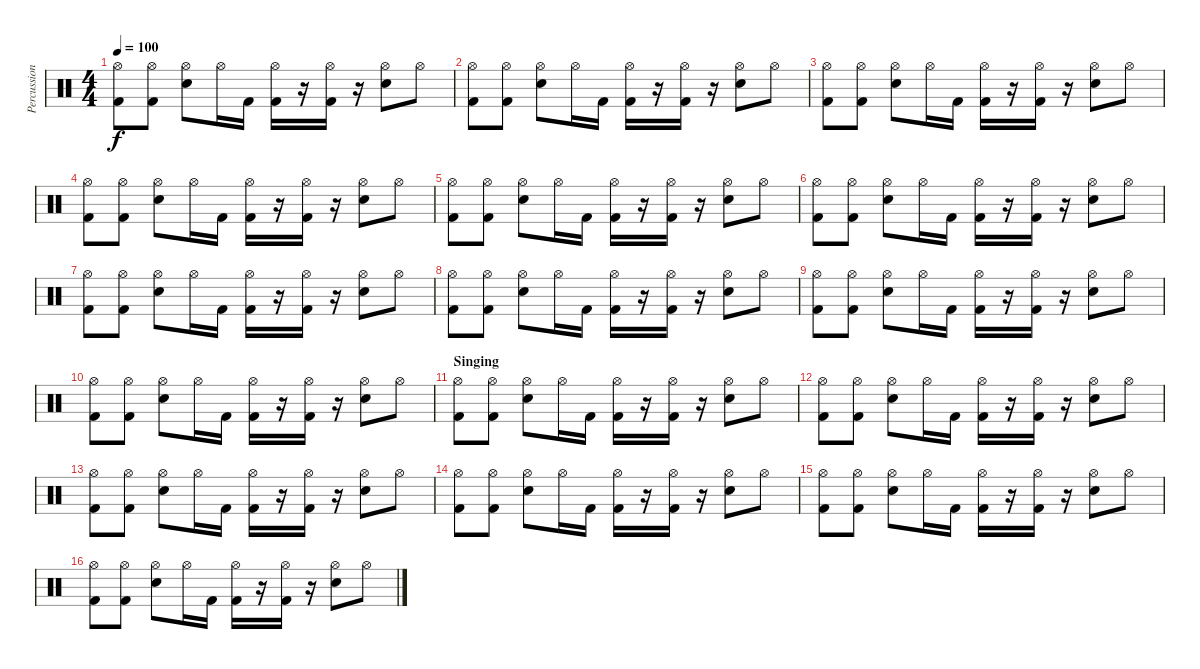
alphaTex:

\track ("Percussion" "Percussion") {instrument percussion}
\staff {score}
\articulation defaults
\ts (4 4)
\tempo 100
\clef neutral
\ks c
("Hi-Hat (open)" "Kick (hit) 2").8{dy f} ("Hi-Hat (open)" "Kick (hit) 2").8 ("Hi-Hat (open)" "Snare (hit) 2").8 "Hi-Hat (open)".16 "Kick (hit) 2".16 ("Hi-Hat (open)" "Kick (hit) 2").16 r.16 ("Hi-Hat (open)" "Kick (hit) 2").16 r.16 ("Hi-Hat (open)" "Snare (hit) 2").8 "Hi-Hat (open)".8 |
("Hi-Hat (open)" "Kick (hit) 2").8 ("Hi-Hat (open)" "Kick (hit) 2").8 ("Hi-Hat (open)" "Snare (hit) 2").8 "Hi-Hat (open)".16 "Kick (hit) 2".16 ("Hi-Hat (open)" "Kick (hit) 2").16 r.16 ("Hi-Hat (open)" "Kick (hit) 2").16 r.16 ("Hi-Hat (open)" "Snare (hit) 2").8 "Hi-Hat (open)".8 |
("Hi-Hat (open)" "Kick (hit) 2").8 ("Hi-Hat (open)" "Kick (hit) 2").8 ("Hi-Hat (open)" "Snare (hit) 2").8 "Hi-Hat (open)".16 "Kick (hit) 2".16 ("Hi-Hat (open)" "Kick (hit) 2").16 r.16 ("Hi-Hat (open)" "Kick (hit) 2").16 r.16 ("Hi-Hat (open)" "Snare (hit) 2").8 "Hi-Hat (open)".8 |
("Hi-Hat (open)" "Kick (hit) 2").8 ("Hi-Hat (open)" "Kick (hit) 2").8 ("Hi-Hat (open)" "Snare (hit) 2").8 "Hi-Hat (open)".16 "Kick (hit) 2".16 ("Hi-Hat (open)" "Kick (hit) 2").16 r.16 ("Hi-Hat (open)" "Kick (hit) 2").16 r.16 ("Hi-Hat (open)" "Snare (hit) 2").8 "Hi-Hat (open)".8 |
("Hi-Hat (open)" "Kick (hit) 2").8 ("Hi-Hat (open)" "Kick (hit) 2").8 ("Hi-Hat (open)" "Snare (hit) 2").8 "Hi-Hat (open)".16 "Kick (hit) 2".16 ("Hi-Hat (open)" "Kick (hit) 2").16 r.16 ("Hi-Hat (open)" "Kick (hit) 2").16 r.16 ("Hi-Hat (open)" "Snare (hit) 2").8 "Hi-Hat (open)".8 |
("Hi-Hat (open)" "Kick (hit) 2").8 ("Hi-Hat (open)" "Kick (hit) 2").8 ("Hi-Hat (open)" "Snare (hit) 2").8 "Hi-Hat (open)".16 "Kick (hit) 2".16 ("Hi-Hat (open)" "Kick (hit) 2").16 r.16 ("Hi-Hat (open)" "Kick (hit) 2").16 r.16 ("Hi-Hat (open)" "Snare (hit) 2").8 "Hi-Hat (open)".8 |
("Hi-Hat (open)" "Kick (hit) 2").8 ("Hi-Hat (open)" "Kick (hit) 2").8 ("Hi-Hat (open)" "Snare (hit) 2").8 "Hi-Hat (open)".16 "Kick (hit) 2".16 ("Hi-Hat (open)" "Kick (hit) 2").16 r.16 ("Hi-Hat (open)" "Kick (hit) 2").16 r.16 ("Hi-Hat (open)" "Snare (hit) 2").8 "Hi-Hat (open)".8 |
("Hi-Hat (open)" "Kick (hit) 2").8 ("Hi-Hat (open)" "Kick (hit) 2").8 ("Hi-Hat (open)" "Snare (hit) 2").8 "Hi-Hat (open)".16 "Kick (hit) 2".16 ("Hi-Hat (open)" "Kick (hit) 2").16 r.16 ("Hi-Hat (open)" "Kick (hit) 2").16 r.16 ("Hi-Hat (open)" "Snare (hit) 2").8 "Hi-Hat (open)".8 |
("Hi-Hat (open)" "Kick (hit) 2").8 ("Hi-Hat (open)" "Kick (hit) 2").8 ("Hi-Hat (open)" "Snare (hit) 2").8 "Hi-Hat (open)".16 "Kick (hit) 2".16 ("Hi-Hat (open)" "Kick (hit) 2").16 r.16 ("Hi-Hat (open)" "Kick (hit) 2").16 r.16 ("Hi-Hat (open)" "Snare (hit) 2").8 "Hi-Hat (open)".8 |
("Hi-Hat (open)" "Kick (hit) 2").8 ("Hi-Hat (open)" "Kick (hit) 2").8 ("Hi-Hat (open)" "Snare (hit) 2").8 "Hi-Hat (open)".16 "Kick (hit) 2".16 ("Hi-Hat (open)" "Kick (hit) 2").16 r.16 ("Hi-Hat (open)" "Kick (hit) 2").16 r.16 ("Hi-Hat (open)" "Snare (hit) 2").8 "Hi-Hat (open)".8 |
\section ("" "Singing")
("Hi-Hat (open)" "Kick (hit) 2").8 ("Hi-Hat (open)" "Kick (hit) 2").8 ("Hi-Hat (open)" "Snare (hit) 2").8 "Hi-Hat (open)".16 "Kick (hit) 2".16 ("Hi-Hat (open)" "Kick (hit) 2").16 r.16 ("Hi-Hat (open)" "Kick (hit) 2").16 r.16 ("Hi-Hat (open)" "Snare (hit) 2").8 "Hi-Hat (open)".8 |
("Hi-Hat (open)" "Kick (hit) 2").8 ("Hi-Hat (open)" "Kick (hit) 2").8 ("Hi-Hat (open)" "Snare (hit) 2").8 "Hi-Hat (open)".16 "Kick (hit) 2".16 ("Hi-Hat (open)" "Kick (hit) 2").16 r.16 ("Hi-Hat (open)" "Kick (hit) 2").16 r.16 ("Hi-Hat (open)" "Snare (hit) 2").8 "Hi-Hat (open)".8 |
("Hi-Hat (open)" "Kick (hit) 2").8 ("Hi-Hat (open)" "Kick (hit) 2").8 ("Hi-Hat (open)" "Snare (hit) 2").8 "Hi-Hat (open)".16 "Kick (hit) 2".16 ("Hi-Hat (open)" "Kick (hit) 2").16 r.16 ("Hi-Hat (open)" "Kick (hit) 2").16 r.16 ("Hi-Hat (open)" "Snare (hit) 2").8 "Hi-Hat (open)".8 |
("Hi-Hat (open)" "Kick (hit) 2").8 ("Hi-Hat (open)" "Kick (hit) 2").8 ("Hi-Hat (open)" "Snare (hit) 2").8 "Hi-Hat (open)".16 "Kick (hit) 2".16 ("Hi-Hat (open)" "Kick (hit) 2").16 r.16 ("Hi-Hat (open)" "Kick (hit) 2").16 r.16 ("Hi-Hat (open)" "Snare (hit) 2").8 "Hi-Hat (open)".8 |
("Hi-Hat (open)" "Kick (hit) 2").8 ("Hi-Hat (open)" "Kick (hit) 2").8 ("Hi-Hat (open)" "Snare (hit) 2").8 "Hi-Hat (open)".16 "Kick (hit) 2".16 ("Hi-Hat (open)" "Kick (hit) 2").16 r.16 ("Hi-Hat (open)" "Kick (hit) 2").16 r.16 ("Hi-Hat (open)" "Snare (hit) 2").8 "Hi-Hat (open)".8 |
("Hi-Hat (open)" "Kick (hit) 2").8 ("Hi-Hat (open)" "Kick (hit) 2").8 ("Hi-Hat (open)" "Snare (hit) 2").8 "Hi-Hat (open)".16 "Kick (hit) 2".16 ("Hi-Hat (open)" "Kick (hit) 2").16 r.16 ("Hi-Hat (open)" "Kick (hit) 2").16 r.16 ("Hi-Hat (open)" "Snare (hit) 2").8 "Hi-Hat (open)".8
